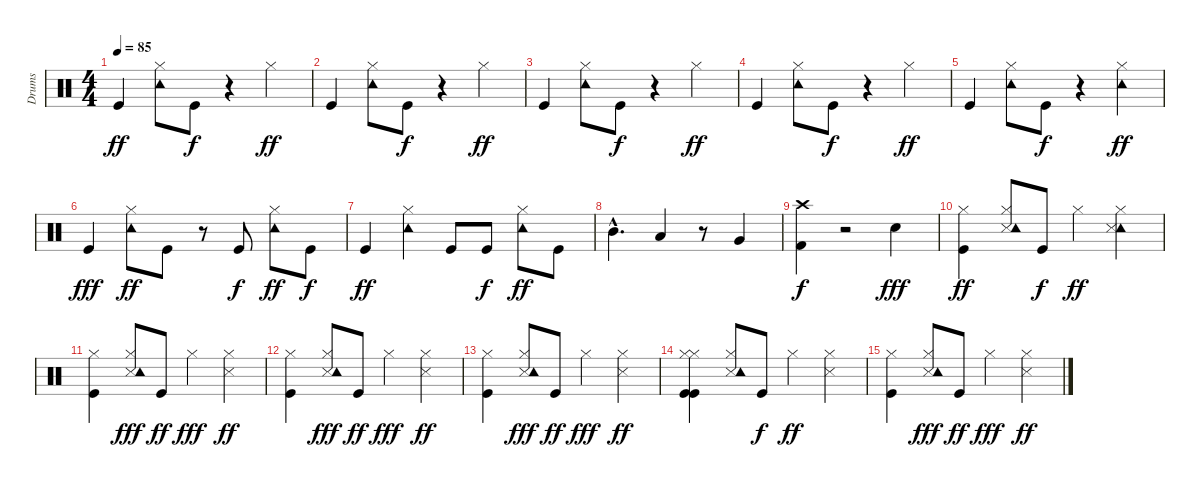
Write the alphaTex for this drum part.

\track ("Drums" "Drums") {instrument percussion}
\staff {score}
\articulation defaults
\ts (4 4)
\tempo 85
\clef neutral
\ks c "Kick (hit)".4{dy ff}
("Tambourine (hit)" "Hi-Hat (closed)").8 "Kick (hit)".8{dy f} r.4 "Hi-Hat (closed)".4{dy ff} |
"Kick (hit)".4 ("Tambourine (hit)" "Hi-Hat (closed)").8 "Kick (hit)".8{dy f} r.4 "Hi-Hat (closed)".4{dy ff} |
"Kick (hit)".4 ("Tambourine (hit)" "Hi-Hat (closed)").8 "Kick (hit)".8{dy f} r.4 "Hi-Hat (closed)".4{dy ff} |
"Kick (hit)".4 ("Tambourine (hit)" "Hi-Hat (closed)").8 "Kick (hit)".8{dy f} r.4 "Hi-Hat (closed)".4{dy ff} |
"Kick (hit)".4 ("Tambourine (hit)" "Hi-Hat (closed)").8 "Kick (hit)".8{dy f} r.4 ("Hi-Hat (closed)" "Tambourine (hit)").4{dy ff} |
"Kick (hit)".4{dy fff} ("Tambourine (hit)" "Hi-Hat (closed)").8{dy ff} "Kick (hit)".8 r.8 "Kick (hit)".8{dy f} ("Tambourine (hit)" "Hi-Hat (closed)").8{dy ff} "Kick (hit)".8{dy f} |
"Kick (hit)".4{dy ff} ("Tambourine (hit)" "Hi-Hat (closed)").4 "Kick (hit)".8 "Kick (hit)".8{dy f} ("Hi-Hat (closed)" "Tambourine (hit)").8{dy ff} "Kick (hit)".8 |
"Mid Tom (hit)"{hac}.4{d} "Low Tom (hit)".4 r.8 "Very Low Tom (hit)".4 |
("Kick (hit) 2" "Crash high (hit)").4{dy f} r.2 "Snare (hit) 2".4{dy fff} |
("Hi-Hat (closed)" "Kick (hit)").4{dy ff} ("Hi-Hat (closed)" "Snare (side stick) 3" "Tambourine (hit)").8 "Kick (hit)".8{dy f} "Hi-Hat (closed)".4{dy ff} ("Tambourine (hit)" "Hi-Hat (closed)" "Snare (side stick) 3").4 |
("Hi-Hat (closed)" "Kick (hit)").4 ("Snare (side stick) 3" "Tambourine (hit)" "Hi-Hat (closed)").8{dy fff} "Kick (hit)".8{dy ff} "Hi-Hat (closed)".4{dy fff} ("Hi-Hat (closed)" "Snare (side stick) 3").4{dy ff} |
("Hi-Hat (closed)" "Kick (hit)").4{volume 7} ("Snare (side stick) 3" "Tambourine (hit)" "Hi-Hat (closed)").8{dy fff} "Kick (hit)".8{dy ff} "Hi-Hat (closed)".4{dy fff} ("Hi-Hat (closed)" "Snare (side stick) 3").4{dy ff} |
("Hi-Hat (closed)" "Kick (hit)").4 ("Snare (side stick) 3" "Tambourine (hit)" "Hi-Hat (closed)").8{dy fff} "Kick (hit)".8{dy ff} "Hi-Hat (closed)".4{dy fff} ("Hi-Hat (closed)" "Snare (side stick) 3").4{dy ff} |
("Kick (hit)" "Hi-Hat (closed)" "Hi-Hat (closed)" "Kick (hit)").4{volume 4} ("Hi-Hat (closed)" "Snare (side stick) 3" "Tambourine (hit)").8 "Kick (hit)".8{dy f} "Hi-Hat (closed)".4{dy ff} ("Snare (side stick) 3" "Hi-Hat (closed)").4 |
("Hi-Hat (closed)" "Kick (hit)").4 ("Snare (side stick) 3" "Tambourine (hit)" "Hi-Hat (closed)").8{dy fff} "Kick (hit)".8{dy ff} "Hi-Hat (closed)".4{dy fff} ("Hi-Hat (closed)" "Snare (side stick) 3").4{dy ff}
